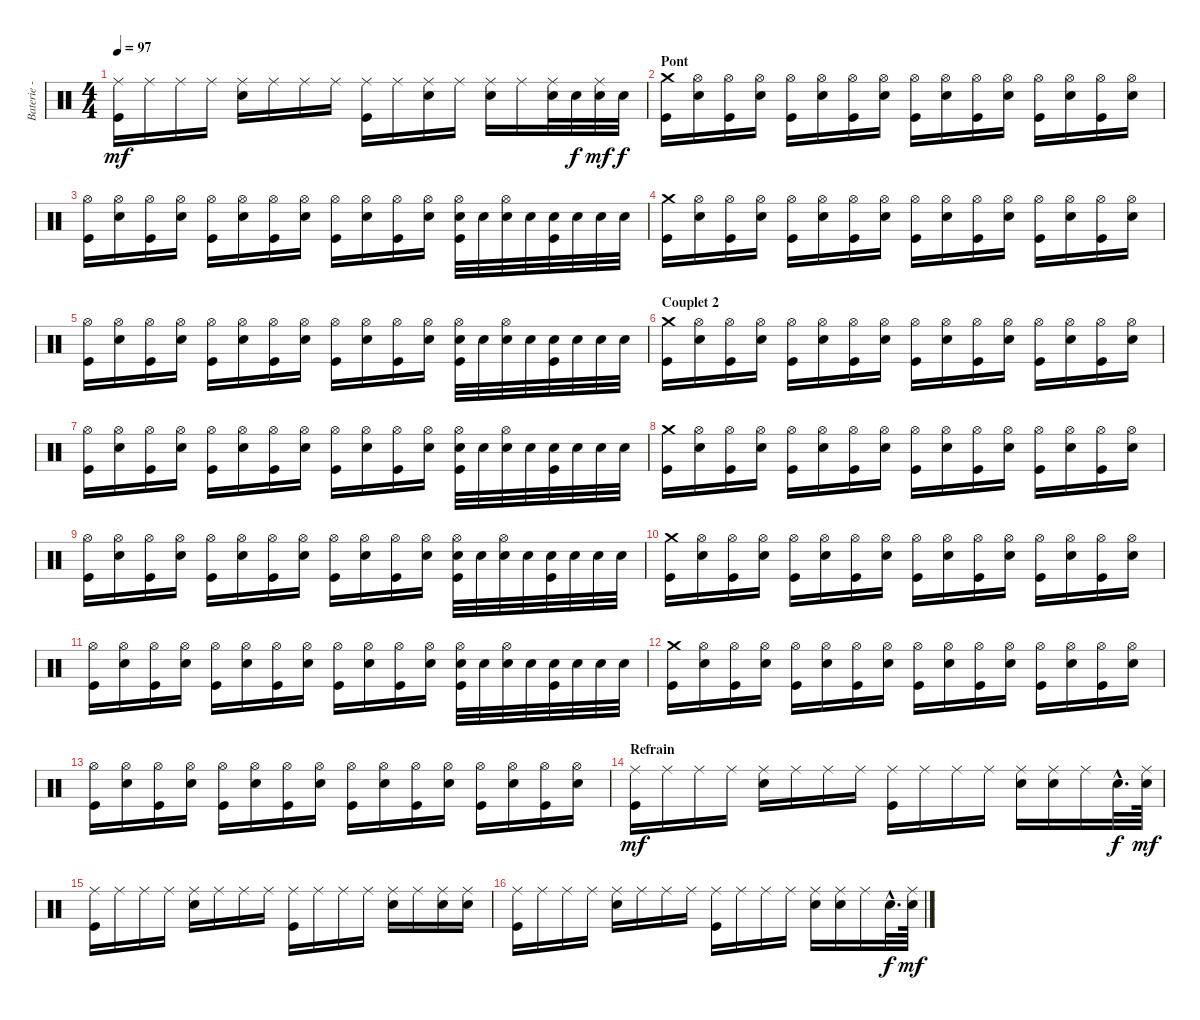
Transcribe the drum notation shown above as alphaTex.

\track ("Baterie - Alex" "Baterie - ") {instrument percussion}
\staff {score}
\articulation defaults
\ts (4 4)
\tempo 97
\clef neutral
\ks c
("Ride (middle)" "Kick (hit)").16{dy mf} "Ride (middle)".16 "Ride (middle)".16 "Ride (middle)".16 ("Ride (middle)" "Electric Snare (hit)").16 "Ride (middle)".16 "Ride (middle)".16 "Ride (middle)".16 ("Ride (middle)" "Kick (hit)").16 "Ride (middle)".16 ("Ride (middle)" "Electric Snare (hit)").16 "Ride (middle)".16 ("Ride (middle)" "Electric Snare (hit)").16 "Ride (middle)".16 ("Ride (middle)" "Electric Snare (hit)").32 "Electric Snare (hit)".32{dy f} ("Ride (middle)" "Electric Snare (hit)").32{dy mf} "Electric Snare (hit)".32{dy f} |
\section ("" "Pont")
("Crash medium (hit)" "Kick (hit)").16 ("Hi-Hat (open)" "Electric Snare (hit)").16 ("Hi-Hat (open)" "Kick (hit)").16 ("Hi-Hat (open)" "Electric Snare (hit)").16 ("Hi-Hat (open)" "Kick (hit)").16 ("Hi-Hat (open)" "Electric Snare (hit)").16 ("Hi-Hat (open)" "Kick (hit)").16 ("Hi-Hat (open)" "Electric Snare (hit)").16 ("Hi-Hat (open)" "Kick (hit)").16 ("Hi-Hat (open)" "Electric Snare (hit)").16 ("Hi-Hat (open)" "Kick (hit)").16 ("Hi-Hat (open)" "Electric Snare (hit)").16 ("Hi-Hat (open)" "Kick (hit)").16 ("Hi-Hat (open)" "Electric Snare (hit)").16 ("Hi-Hat (open)" "Kick (hit)").16 ("Hi-Hat (open)" "Electric Snare (hit)").16 |
("Hi-Hat (open)" "Kick (hit)").16 ("Hi-Hat (open)" "Electric Snare (hit)").16 ("Hi-Hat (open)" "Kick (hit)").16 ("Hi-Hat (open)" "Electric Snare (hit)").16 ("Hi-Hat (open)" "Kick (hit)").16 ("Hi-Hat (open)" "Electric Snare (hit)").16 ("Hi-Hat (open)" "Kick (hit)").16 ("Hi-Hat (open)" "Electric Snare (hit)").16 ("Hi-Hat (open)" "Kick (hit)").16 ("Hi-Hat (open)" "Electric Snare (hit)").16 ("Hi-Hat (open)" "Kick (hit)").16 ("Hi-Hat (open)" "Electric Snare (hit)").16 ("Hi-Hat (open)" "Electric Snare (hit)" "Kick (hit)").32 "Electric Snare (hit)".32 ("Hi-Hat (open)" "Electric Snare (hit)").32 "Electric Snare (hit)".32 ("Electric Snare (hit)" "Kick (hit)").32 "Electric Snare (hit)".32 "Electric Snare (hit)".32 "Electric Snare (hit)".32 |
("Crash medium (hit)" "Kick (hit)").16 ("Hi-Hat (open)" "Electric Snare (hit)").16 ("Hi-Hat (open)" "Kick (hit)").16 ("Hi-Hat (open)" "Electric Snare (hit)").16 ("Hi-Hat (open)" "Kick (hit)").16 ("Hi-Hat (open)" "Electric Snare (hit)").16 ("Hi-Hat (open)" "Kick (hit)").16 ("Hi-Hat (open)" "Electric Snare (hit)").16 ("Hi-Hat (open)" "Kick (hit)").16 ("Hi-Hat (open)" "Electric Snare (hit)").16 ("Hi-Hat (open)" "Kick (hit)").16 ("Hi-Hat (open)" "Electric Snare (hit)").16 ("Hi-Hat (open)" "Kick (hit)").16 ("Hi-Hat (open)" "Electric Snare (hit)").16 ("Hi-Hat (open)" "Kick (hit)").16 ("Hi-Hat (open)" "Electric Snare (hit)").16 |
("Hi-Hat (open)" "Kick (hit)").16 ("Hi-Hat (open)" "Electric Snare (hit)").16 ("Hi-Hat (open)" "Kick (hit)").16 ("Hi-Hat (open)" "Electric Snare (hit)").16 ("Hi-Hat (open)" "Kick (hit)").16 ("Hi-Hat (open)" "Electric Snare (hit)").16 ("Hi-Hat (open)" "Kick (hit)").16 ("Hi-Hat (open)" "Electric Snare (hit)").16 ("Hi-Hat (open)" "Kick (hit)").16 ("Hi-Hat (open)" "Electric Snare (hit)").16 ("Hi-Hat (open)" "Kick (hit)").16 ("Hi-Hat (open)" "Electric Snare (hit)").16 ("Hi-Hat (open)" "Electric Snare (hit)" "Kick (hit)").32 "Electric Snare (hit)".32 ("Hi-Hat (open)" "Electric Snare (hit)").32 "Electric Snare (hit)".32 ("Electric Snare (hit)" "Kick (hit)").32 "Electric Snare (hit)".32 "Electric Snare (hit)".32 "Electric Snare (hit)".32 |
\section ("" "Couplet 2")
("Crash medium (hit)" "Kick (hit)").16 ("Hi-Hat (open)" "Electric Snare (hit)").16 ("Hi-Hat (open)" "Kick (hit)").16 ("Hi-Hat (open)" "Electric Snare (hit)").16 ("Hi-Hat (open)" "Kick (hit)").16 ("Hi-Hat (open)" "Electric Snare (hit)").16 ("Hi-Hat (open)" "Kick (hit)").16 ("Hi-Hat (open)" "Electric Snare (hit)").16 ("Hi-Hat (open)" "Kick (hit)").16 ("Hi-Hat (open)" "Electric Snare (hit)").16 ("Hi-Hat (open)" "Kick (hit)").16 ("Hi-Hat (open)" "Electric Snare (hit)").16 ("Hi-Hat (open)" "Kick (hit)").16 ("Hi-Hat (open)" "Electric Snare (hit)").16 ("Hi-Hat (open)" "Kick (hit)").16 ("Hi-Hat (open)" "Electric Snare (hit)").16 |
("Hi-Hat (open)" "Kick (hit)").16 ("Hi-Hat (open)" "Electric Snare (hit)").16 ("Hi-Hat (open)" "Kick (hit)").16 ("Hi-Hat (open)" "Electric Snare (hit)").16 ("Hi-Hat (open)" "Kick (hit)").16 ("Hi-Hat (open)" "Electric Snare (hit)").16 ("Hi-Hat (open)" "Kick (hit)").16 ("Hi-Hat (open)" "Electric Snare (hit)").16 ("Hi-Hat (open)" "Kick (hit)").16 ("Hi-Hat (open)" "Electric Snare (hit)").16 ("Hi-Hat (open)" "Kick (hit)").16 ("Hi-Hat (open)" "Electric Snare (hit)").16 ("Hi-Hat (open)" "Electric Snare (hit)" "Kick (hit)").32 "Electric Snare (hit)".32 ("Hi-Hat (open)" "Electric Snare (hit)").32 "Electric Snare (hit)".32 ("Electric Snare (hit)" "Kick (hit)").32 "Electric Snare (hit)".32 "Electric Snare (hit)".32 "Electric Snare (hit)".32 |
("Crash medium (hit)" "Kick (hit)").16 ("Hi-Hat (open)" "Electric Snare (hit)").16 ("Hi-Hat (open)" "Kick (hit)").16 ("Hi-Hat (open)" "Electric Snare (hit)").16 ("Hi-Hat (open)" "Kick (hit)").16 ("Hi-Hat (open)" "Electric Snare (hit)").16 ("Hi-Hat (open)" "Kick (hit)").16 ("Hi-Hat (open)" "Electric Snare (hit)").16 ("Hi-Hat (open)" "Kick (hit)").16 ("Hi-Hat (open)" "Electric Snare (hit)").16 ("Hi-Hat (open)" "Kick (hit)").16 ("Hi-Hat (open)" "Electric Snare (hit)").16 ("Hi-Hat (open)" "Kick (hit)").16 ("Hi-Hat (open)" "Electric Snare (hit)").16 ("Hi-Hat (open)" "Kick (hit)").16 ("Hi-Hat (open)" "Electric Snare (hit)").16 |
("Hi-Hat (open)" "Kick (hit)").16 ("Hi-Hat (open)" "Electric Snare (hit)").16 ("Hi-Hat (open)" "Kick (hit)").16 ("Hi-Hat (open)" "Electric Snare (hit)").16 ("Hi-Hat (open)" "Kick (hit)").16 ("Hi-Hat (open)" "Electric Snare (hit)").16 ("Hi-Hat (open)" "Kick (hit)").16 ("Hi-Hat (open)" "Electric Snare (hit)").16 ("Hi-Hat (open)" "Kick (hit)").16 ("Hi-Hat (open)" "Electric Snare (hit)").16 ("Hi-Hat (open)" "Kick (hit)").16 ("Hi-Hat (open)" "Electric Snare (hit)").16 ("Hi-Hat (open)" "Electric Snare (hit)" "Kick (hit)").32 "Electric Snare (hit)".32 ("Hi-Hat (open)" "Electric Snare (hit)").32 "Electric Snare (hit)".32 ("Electric Snare (hit)" "Kick (hit)").32 "Electric Snare (hit)".32 "Electric Snare (hit)".32 "Electric Snare (hit)".32 |
("Crash medium (hit)" "Kick (hit)").16 ("Hi-Hat (open)" "Electric Snare (hit)").16 ("Hi-Hat (open)" "Kick (hit)").16 ("Hi-Hat (open)" "Electric Snare (hit)").16 ("Hi-Hat (open)" "Kick (hit)").16 ("Hi-Hat (open)" "Electric Snare (hit)").16 ("Hi-Hat (open)" "Kick (hit)").16 ("Hi-Hat (open)" "Electric Snare (hit)").16 ("Hi-Hat (open)" "Kick (hit)").16 ("Hi-Hat (open)" "Electric Snare (hit)").16 ("Hi-Hat (open)" "Kick (hit)").16 ("Hi-Hat (open)" "Electric Snare (hit)").16 ("Hi-Hat (open)" "Kick (hit)").16 ("Hi-Hat (open)" "Electric Snare (hit)").16 ("Hi-Hat (open)" "Kick (hit)").16 ("Hi-Hat (open)" "Electric Snare (hit)").16 |
("Hi-Hat (open)" "Kick (hit)").16 ("Hi-Hat (open)" "Electric Snare (hit)").16 ("Hi-Hat (open)" "Kick (hit)").16 ("Hi-Hat (open)" "Electric Snare (hit)").16 ("Hi-Hat (open)" "Kick (hit)").16 ("Hi-Hat (open)" "Electric Snare (hit)").16 ("Hi-Hat (open)" "Kick (hit)").16 ("Hi-Hat (open)" "Electric Snare (hit)").16 ("Hi-Hat (open)" "Kick (hit)").16 ("Hi-Hat (open)" "Electric Snare (hit)").16 ("Hi-Hat (open)" "Kick (hit)").16 ("Hi-Hat (open)" "Electric Snare (hit)").16 ("Hi-Hat (open)" "Electric Snare (hit)" "Kick (hit)").32 "Electric Snare (hit)".32 ("Hi-Hat (open)" "Electric Snare (hit)").32 "Electric Snare (hit)".32 ("Electric Snare (hit)" "Kick (hit)").32 "Electric Snare (hit)".32 "Electric Snare (hit)".32 "Electric Snare (hit)".32 |
("Crash medium (hit)" "Kick (hit)").16 ("Hi-Hat (open)" "Electric Snare (hit)").16 ("Hi-Hat (open)" "Kick (hit)").16 ("Hi-Hat (open)" "Electric Snare (hit)").16 ("Hi-Hat (open)" "Kick (hit)").16 ("Hi-Hat (open)" "Electric Snare (hit)").16 ("Hi-Hat (open)" "Kick (hit)").16 ("Hi-Hat (open)" "Electric Snare (hit)").16 ("Hi-Hat (open)" "Kick (hit)").16 ("Hi-Hat (open)" "Electric Snare (hit)").16 ("Hi-Hat (open)" "Kick (hit)").16 ("Hi-Hat (open)" "Electric Snare (hit)").16 ("Hi-Hat (open)" "Kick (hit)").16 ("Hi-Hat (open)" "Electric Snare (hit)").16 ("Hi-Hat (open)" "Kick (hit)").16 ("Hi-Hat (open)" "Electric Snare (hit)").16 |
("Hi-Hat (open)" "Kick (hit)").16 ("Hi-Hat (open)" "Electric Snare (hit)").16 ("Hi-Hat (open)" "Kick (hit)").16 ("Hi-Hat (open)" "Electric Snare (hit)").16 ("Hi-Hat (open)" "Kick (hit)").16 ("Hi-Hat (open)" "Electric Snare (hit)").16 ("Hi-Hat (open)" "Kick (hit)").16 ("Hi-Hat (open)" "Electric Snare (hit)").16 ("Hi-Hat (open)" "Kick (hit)").16 ("Hi-Hat (open)" "Electric Snare (hit)").16 ("Hi-Hat (open)" "Kick (hit)").16 ("Hi-Hat (open)" "Electric Snare (hit)").16 ("Hi-Hat (open)" "Kick (hit)").16 ("Hi-Hat (open)" "Electric Snare (hit)").16 ("Hi-Hat (open)" "Kick (hit)").16 ("Hi-Hat (open)" "Electric Snare (hit)").16 |
\section ("" "Refrain")
("Ride (middle)" "Kick (hit)").16{dy mf} "Ride (middle)".16 "Ride (middle)".16 "Ride (middle)".16 ("Ride (middle)" "Electric Snare (hit)").16 "Ride (middle)".16 "Ride (middle)".16 "Ride (middle)".16 ("Ride (middle)" "Kick (hit)").16 "Ride (middle)".16 "Ride (middle)".16 "Ride (middle)".16 ("Ride (middle)" "Electric Snare (hit)").16 ("Ride (middle)" "Electric Snare (hit)").16 "Ride (middle)".16 "Electric Snare (hit)"{hac}.32{d dy f} ("Ride (middle)" "Electric Snare (hit)").64{dy mf} |
("Ride (middle)" "Kick (hit)").16 "Ride (middle)".16 "Ride (middle)".16 "Ride (middle)".16 ("Ride (middle)" "Electric Snare (hit)").16 "Ride (middle)".16 "Ride (middle)".16 "Ride (middle)".16 ("Ride (middle)" "Kick (hit)").16 "Ride (middle)".16 "Ride (middle)".16 "Ride (middle)".16 ("Ride (middle)" "Electric Snare (hit)").16 "Ride (middle)".16 ("Ride (middle)" "Electric Snare (hit)").16 ("Ride (middle)" "Electric Snare (hit)").16 |
("Ride (middle)" "Kick (hit)").16 "Ride (middle)".16 "Ride (middle)".16 "Ride (middle)".16 ("Ride (middle)" "Electric Snare (hit)").16 "Ride (middle)".16 "Ride (middle)".16 "Ride (middle)".16 ("Ride (middle)" "Kick (hit)").16 "Ride (middle)".16 "Ride (middle)".16 "Ride (middle)".16 ("Ride (middle)" "Electric Snare (hit)").16 ("Ride (middle)" "Electric Snare (hit)").16 "Ride (middle)".16 "Electric Snare (hit)"{hac}.32{d dy f} ("Ride (middle)" "Electric Snare (hit)").64{dy mf}
